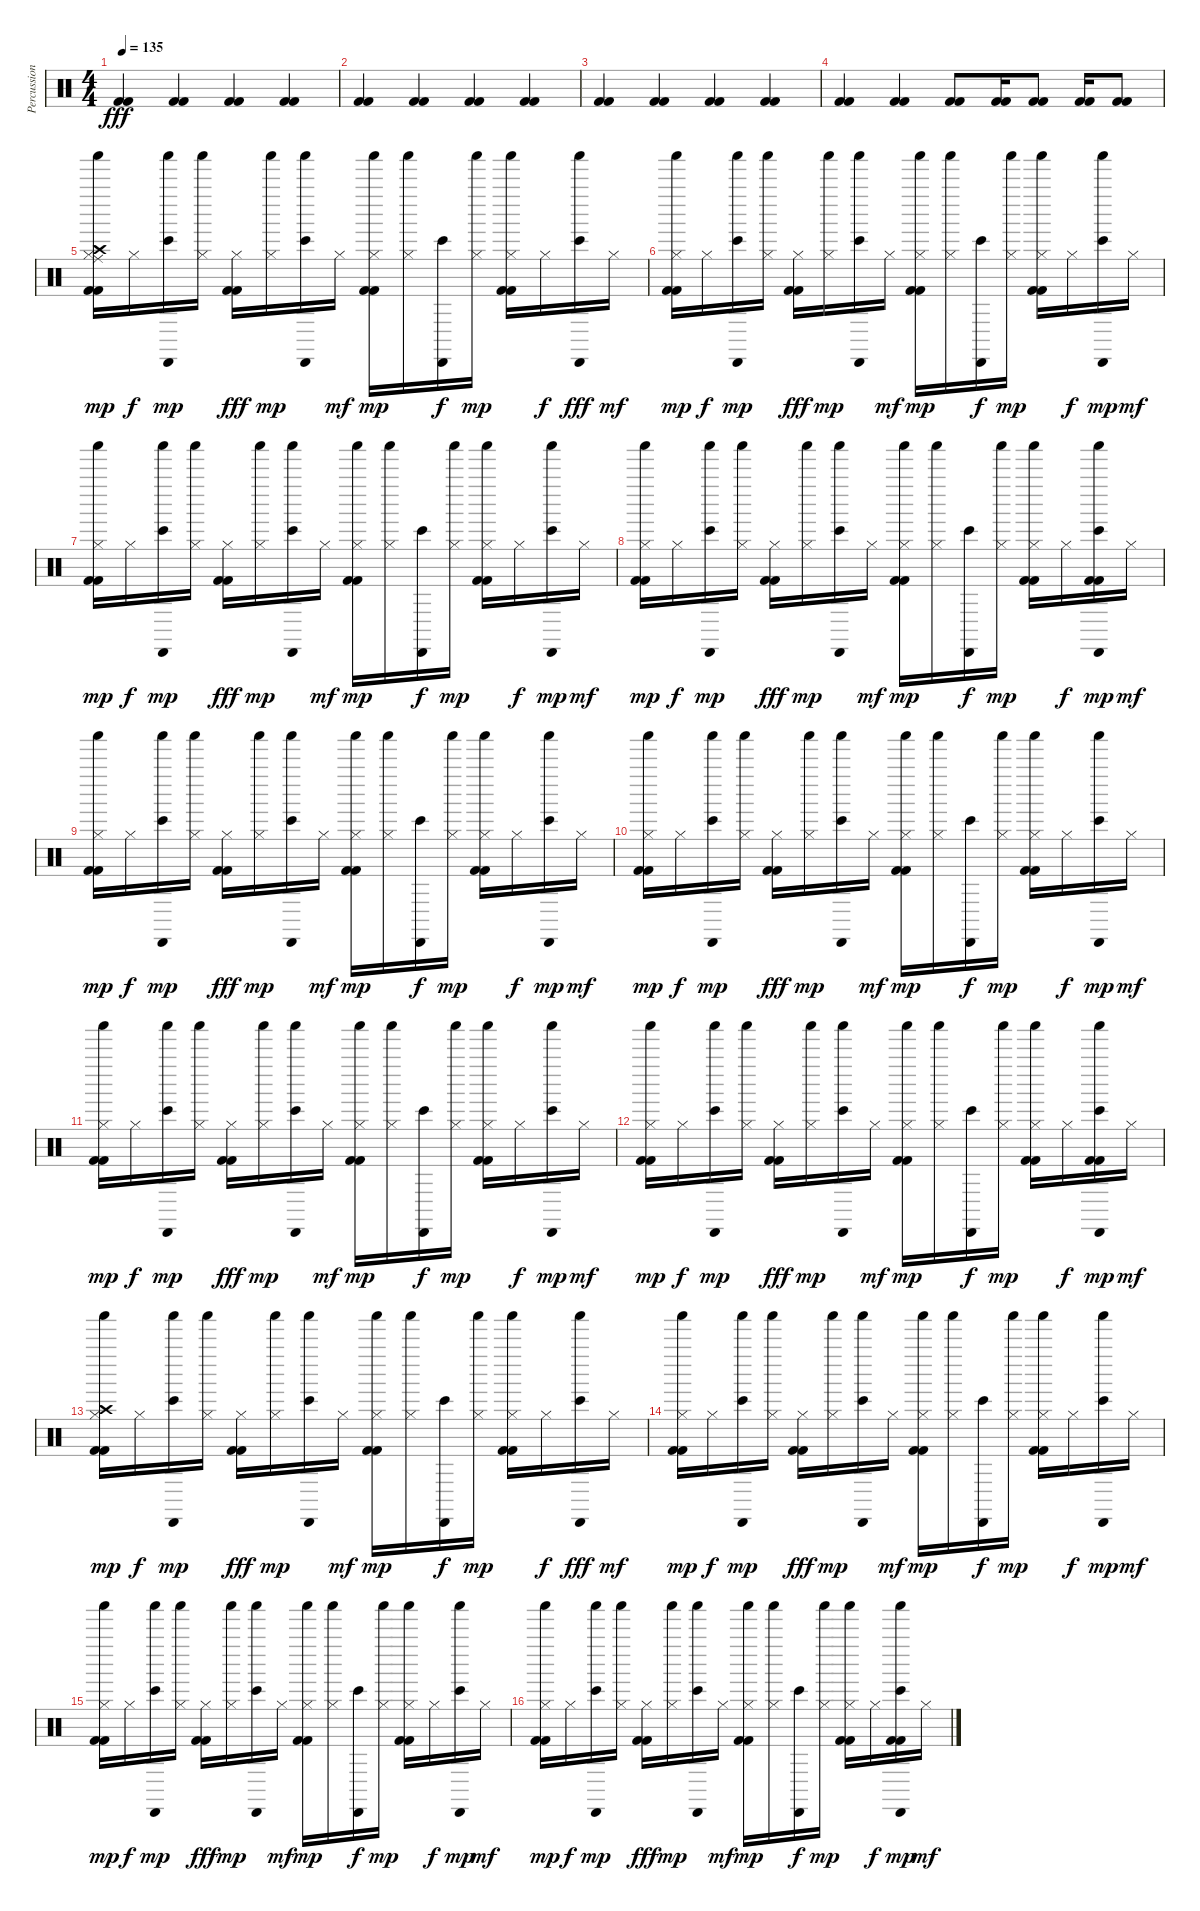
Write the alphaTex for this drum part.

\track ("Percussion" "Percussion") {instrument percussion}
\staff {score}
\articulation defaults
\ts (4 4)
\tempo 135
\clef neutral
\ks c
("Kick (hit) 2" "Kick (hit) 2").4{dy fff} ("Kick (hit) 2" "Kick (hit) 2").4 ("Kick (hit) 2" "Kick (hit) 2").4 ("Kick (hit) 2" "Kick (hit) 2").4 |
("Kick (hit) 2" "Kick (hit) 2").4 ("Kick (hit) 2" "Kick (hit) 2").4 ("Kick (hit) 2" "Kick (hit) 2").4 ("Kick (hit) 2" "Kick (hit) 2").4 |
("Kick (hit) 2" "Kick (hit) 2").4 ("Kick (hit) 2" "Kick (hit) 2").4 ("Kick (hit) 2" "Kick (hit) 2").4 ("Kick (hit) 2" "Kick (hit) 2").4 |
("Kick (hit) 2" "Kick (hit) 2").4 ("Kick (hit) 2" "Kick (hit) 2").4 ("Kick (hit) 2" "Kick (hit) 2").8 ("Kick (hit) 2" "Kick (hit) 2").16 ("Kick (hit) 2" "Kick (hit) 2").8 ("Kick (hit) 2" "Kick (hit) 2").16 ("Kick (hit) 2" "Kick (hit) 2").8 |
("Ride (middle)" "Hi-Hat (closed)" "Crash high (hit)" "Kick (hit) 2" "Kick (hit) 2" "Shaker (hit)").16{dy mp} "Hi-Hat (closed)".16{dy f} ("Cabasa (hit)" "Bongo High (hit)" "Shaker (hit)").16{dy mp} ("Hi-Hat (closed)" "Shaker (hit)").16 ("Hi-Hat (closed)" "Kick (hit) 2" "Kick (hit) 2").16{dy fff} ("Hi-Hat (closed)" "Shaker (hit)").16{dy mp} ("Cabasa (hit)" "Bongo High (hit)" "Shaker (hit)").16 "Hi-Hat (closed)".16{dy mf} ("Hi-Hat (closed)" "Kick (hit) 2" "Kick (hit) 2" "Shaker (hit)").16{dy mp} ("Hi-Hat (closed)" "Shaker (hit)").16 ("Cabasa (hit)" "Bongo High (hit)").16{dy f} ("Hi-Hat (closed)" "Shaker (hit)").16{dy mp} ("Hi-Hat (closed)" "Kick (hit) 2" "Kick (hit) 2" "Shaker (hit)").16 "Hi-Hat (closed)".16{dy f} ("Cabasa (hit)" "Bongo High (hit)" "Shaker (hit)").16{dy fff} "Hi-Hat (closed)".16{dy mf} |
("Hi-Hat (closed)" "Kick (hit) 2" "Kick (hit) 2" "Shaker (hit)").16{dy mp} "Hi-Hat (closed)".16{dy f} ("Cabasa (hit)" "Bongo High (hit)" "Shaker (hit)").16{dy mp} ("Hi-Hat (closed)" "Shaker (hit)").16 ("Hi-Hat (closed)" "Kick (hit) 2" "Kick (hit) 2").16{dy fff} ("Hi-Hat (closed)" "Shaker (hit)").16{dy mp} ("Cabasa (hit)" "Bongo High (hit)" "Shaker (hit)").16 "Hi-Hat (closed)".16{dy mf} ("Hi-Hat (closed)" "Kick (hit) 2" "Kick (hit) 2" "Shaker (hit)").16{dy mp} ("Hi-Hat (closed)" "Shaker (hit)").16 ("Cabasa (hit)" "Bongo High (hit)").16{dy f} ("Hi-Hat (closed)" "Shaker (hit)").16{dy mp} ("Hi-Hat (closed)" "Kick (hit) 2" "Kick (hit) 2" "Shaker (hit)").16 "Hi-Hat (closed)".16{dy f} ("Cabasa (hit)" "Bongo High (hit)" "Shaker (hit)").16{dy mp} "Hi-Hat (closed)".16{dy mf} |
("Hi-Hat (closed)" "Kick (hit) 2" "Kick (hit) 2" "Shaker (hit)").16{dy mp} "Hi-Hat (closed)".16{dy f} ("Cabasa (hit)" "Bongo High (hit)" "Shaker (hit)").16{dy mp} ("Hi-Hat (closed)" "Shaker (hit)").16 ("Hi-Hat (closed)" "Kick (hit) 2" "Kick (hit) 2").16{dy fff} ("Hi-Hat (closed)" "Shaker (hit)").16{dy mp} ("Cabasa (hit)" "Bongo High (hit)" "Shaker (hit)").16 "Hi-Hat (closed)".16{dy mf} ("Hi-Hat (closed)" "Kick (hit) 2" "Kick (hit) 2" "Shaker (hit)").16{dy mp} ("Hi-Hat (closed)" "Shaker (hit)").16 ("Cabasa (hit)" "Bongo High (hit)").16{dy f} ("Hi-Hat (closed)" "Shaker (hit)").16{dy mp} ("Hi-Hat (closed)" "Kick (hit) 2" "Kick (hit) 2" "Shaker (hit)").16 "Hi-Hat (closed)".16{dy f} ("Cabasa (hit)" "Bongo High (hit)" "Shaker (hit)").16{dy mp} "Hi-Hat (closed)".16{dy mf} |
("Hi-Hat (closed)" "Kick (hit) 2" "Kick (hit) 2" "Shaker (hit)").16{dy mp} "Hi-Hat (closed)".16{dy f} ("Cabasa (hit)" "Bongo High (hit)" "Shaker (hit)").16{dy mp} ("Hi-Hat (closed)" "Shaker (hit)").16 ("Hi-Hat (closed)" "Kick (hit) 2" "Kick (hit) 2").16{dy fff} ("Hi-Hat (closed)" "Shaker (hit)").16{dy mp} ("Cabasa (hit)" "Bongo High (hit)" "Shaker (hit)").16 "Hi-Hat (closed)".16{dy mf} ("Hi-Hat (closed)" "Kick (hit) 2" "Kick (hit) 2" "Shaker (hit)").16{dy mp} ("Hi-Hat (closed)" "Shaker (hit)").16 ("Cabasa (hit)" "Bongo High (hit)").16{dy f} ("Hi-Hat (closed)" "Shaker (hit)").16{dy mp} ("Hi-Hat (closed)" "Kick (hit) 2" "Kick (hit) 2" "Shaker (hit)").16 "Hi-Hat (closed)".16{dy f} ("Cabasa (hit)" "Bongo High (hit)" "Kick (hit) 2" "Kick (hit) 2" "Shaker (hit)").16{dy mp} "Hi-Hat (closed)".16{dy mf} |
("Hi-Hat (closed)" "Kick (hit) 2" "Kick (hit) 2" "Shaker (hit)").16{dy mp} "Hi-Hat (closed)".16{dy f} ("Cabasa (hit)" "Bongo High (hit)" "Shaker (hit)").16{dy mp} ("Hi-Hat (closed)" "Shaker (hit)").16 ("Hi-Hat (closed)" "Kick (hit) 2" "Kick (hit) 2").16{dy fff} ("Hi-Hat (closed)" "Shaker (hit)").16{dy mp} ("Cabasa (hit)" "Bongo High (hit)" "Shaker (hit)").16 "Hi-Hat (closed)".16{dy mf} ("Hi-Hat (closed)" "Kick (hit) 2" "Kick (hit) 2" "Shaker (hit)").16{dy mp} ("Hi-Hat (closed)" "Shaker (hit)").16 ("Cabasa (hit)" "Bongo High (hit)").16{dy f} ("Hi-Hat (closed)" "Shaker (hit)").16{dy mp} ("Hi-Hat (closed)" "Kick (hit) 2" "Kick (hit) 2" "Shaker (hit)").16 "Hi-Hat (closed)".16{dy f} ("Cabasa (hit)" "Bongo High (hit)" "Shaker (hit)").16{dy mp} "Hi-Hat (closed)".16{dy mf} |
("Hi-Hat (closed)" "Kick (hit) 2" "Kick (hit) 2" "Shaker (hit)").16{dy mp} "Hi-Hat (closed)".16{dy f} ("Cabasa (hit)" "Bongo High (hit)" "Shaker (hit)").16{dy mp} ("Hi-Hat (closed)" "Shaker (hit)").16 ("Hi-Hat (closed)" "Kick (hit) 2" "Kick (hit) 2").16{dy fff} ("Hi-Hat (closed)" "Shaker (hit)").16{dy mp} ("Cabasa (hit)" "Bongo High (hit)" "Shaker (hit)").16 "Hi-Hat (closed)".16{dy mf} ("Hi-Hat (closed)" "Kick (hit) 2" "Kick (hit) 2" "Shaker (hit)").16{dy mp} ("Hi-Hat (closed)" "Shaker (hit)").16 ("Cabasa (hit)" "Bongo High (hit)").16{dy f} ("Hi-Hat (closed)" "Shaker (hit)").16{dy mp} ("Hi-Hat (closed)" "Kick (hit) 2" "Kick (hit) 2" "Shaker (hit)").16 "Hi-Hat (closed)".16{dy f} ("Cabasa (hit)" "Bongo High (hit)" "Shaker (hit)").16{dy mp} "Hi-Hat (closed)".16{dy mf} |
("Hi-Hat (closed)" "Kick (hit) 2" "Kick (hit) 2" "Shaker (hit)").16{dy mp} "Hi-Hat (closed)".16{dy f} ("Cabasa (hit)" "Bongo High (hit)" "Shaker (hit)").16{dy mp} ("Hi-Hat (closed)" "Shaker (hit)").16 ("Hi-Hat (closed)" "Kick (hit) 2" "Kick (hit) 2").16{dy fff} ("Hi-Hat (closed)" "Shaker (hit)").16{dy mp} ("Cabasa (hit)" "Bongo High (hit)" "Shaker (hit)").16 "Hi-Hat (closed)".16{dy mf} ("Hi-Hat (closed)" "Kick (hit) 2" "Kick (hit) 2" "Shaker (hit)").16{dy mp} ("Hi-Hat (closed)" "Shaker (hit)").16 ("Cabasa (hit)" "Bongo High (hit)").16{dy f} ("Hi-Hat (closed)" "Shaker (hit)").16{dy mp} ("Hi-Hat (closed)" "Kick (hit) 2" "Kick (hit) 2" "Shaker (hit)").16 "Hi-Hat (closed)".16{dy f} ("Cabasa (hit)" "Bongo High (hit)" "Shaker (hit)").16{dy mp} "Hi-Hat (closed)".16{dy mf} |
("Hi-Hat (closed)" "Kick (hit) 2" "Kick (hit) 2" "Shaker (hit)").16{dy mp} "Hi-Hat (closed)".16{dy f} ("Cabasa (hit)" "Bongo High (hit)" "Shaker (hit)").16{dy mp} ("Hi-Hat (closed)" "Shaker (hit)").16 ("Hi-Hat (closed)" "Kick (hit) 2" "Kick (hit) 2").16{dy fff} ("Hi-Hat (closed)" "Shaker (hit)").16{dy mp} ("Cabasa (hit)" "Bongo High (hit)" "Shaker (hit)").16 "Hi-Hat (closed)".16{dy mf} ("Hi-Hat (closed)" "Kick (hit) 2" "Kick (hit) 2" "Shaker (hit)").16{dy mp} ("Hi-Hat (closed)" "Shaker (hit)").16 ("Cabasa (hit)" "Bongo High (hit)").16{dy f} ("Hi-Hat (closed)" "Shaker (hit)").16{dy mp} ("Hi-Hat (closed)" "Kick (hit) 2" "Kick (hit) 2" "Shaker (hit)").16 "Hi-Hat (closed)".16{dy f} ("Cabasa (hit)" "Bongo High (hit)" "Kick (hit) 2" "Kick (hit) 2" "Shaker (hit)").16{dy mp} "Hi-Hat (closed)".16{dy mf} |
("Crash high (hit)" "Hi-Hat (closed)" "Kick (hit) 2" "Kick (hit) 2" "Shaker (hit)").16{dy mp} "Hi-Hat (closed)".16{dy f} ("Cabasa (hit)" "Bongo High (hit)" "Shaker (hit)").16{dy mp} ("Hi-Hat (closed)" "Shaker (hit)").16 ("Hi-Hat (closed)" "Kick (hit) 2" "Kick (hit) 2").16{dy fff} ("Hi-Hat (closed)" "Shaker (hit)").16{dy mp} ("Cabasa (hit)" "Bongo High (hit)" "Shaker (hit)").16 "Hi-Hat (closed)".16{dy mf} ("Hi-Hat (closed)" "Kick (hit) 2" "Kick (hit) 2" "Shaker (hit)").16{dy mp} ("Hi-Hat (closed)" "Shaker (hit)").16 ("Cabasa (hit)" "Bongo High (hit)").16{dy f} ("Hi-Hat (closed)" "Shaker (hit)").16{dy mp} ("Hi-Hat (closed)" "Kick (hit) 2" "Kick (hit) 2" "Shaker (hit)").16 "Hi-Hat (closed)".16{dy f} ("Cabasa (hit)" "Bongo High (hit)" "Shaker (hit)").16{dy fff} "Hi-Hat (closed)".16{dy mf} |
("Hi-Hat (closed)" "Kick (hit) 2" "Kick (hit) 2" "Shaker (hit)").16{dy mp} "Hi-Hat (closed)".16{dy f} ("Cabasa (hit)" "Bongo High (hit)" "Shaker (hit)").16{dy mp} ("Hi-Hat (closed)" "Shaker (hit)").16 ("Hi-Hat (closed)" "Kick (hit) 2" "Kick (hit) 2").16{dy fff} ("Hi-Hat (closed)" "Shaker (hit)").16{dy mp} ("Cabasa (hit)" "Bongo High (hit)" "Shaker (hit)").16 "Hi-Hat (closed)".16{dy mf} ("Hi-Hat (closed)" "Kick (hit) 2" "Kick (hit) 2" "Shaker (hit)").16{dy mp} ("Hi-Hat (closed)" "Shaker (hit)").16 ("Cabasa (hit)" "Bongo High (hit)").16{dy f} ("Hi-Hat (closed)" "Shaker (hit)").16{dy mp} ("Hi-Hat (closed)" "Kick (hit) 2" "Kick (hit) 2" "Shaker (hit)").16 "Hi-Hat (closed)".16{dy f} ("Cabasa (hit)" "Bongo High (hit)" "Shaker (hit)").16{dy mp} "Hi-Hat (closed)".16{dy mf} |
("Hi-Hat (closed)" "Kick (hit) 2" "Kick (hit) 2" "Shaker (hit)").16{dy mp} "Hi-Hat (closed)".16{dy f} ("Cabasa (hit)" "Bongo High (hit)" "Shaker (hit)").16{dy mp} ("Hi-Hat (closed)" "Shaker (hit)").16 ("Hi-Hat (closed)" "Kick (hit) 2" "Kick (hit) 2").16{dy fff} ("Hi-Hat (closed)" "Shaker (hit)").16{dy mp} ("Cabasa (hit)" "Bongo High (hit)" "Shaker (hit)").16 "Hi-Hat (closed)".16{dy mf} ("Hi-Hat (closed)" "Kick (hit) 2" "Kick (hit) 2" "Shaker (hit)").16{dy mp} ("Hi-Hat (closed)" "Shaker (hit)").16 ("Cabasa (hit)" "Bongo High (hit)").16{dy f} ("Hi-Hat (closed)" "Shaker (hit)").16{dy mp} ("Hi-Hat (closed)" "Kick (hit) 2" "Kick (hit) 2" "Shaker (hit)").16 "Hi-Hat (closed)".16{dy f} ("Cabasa (hit)" "Bongo High (hit)" "Shaker (hit)").16{dy mp} "Hi-Hat (closed)".16{dy mf} |
("Hi-Hat (closed)" "Kick (hit) 2" "Kick (hit) 2" "Shaker (hit)").16{dy mp} "Hi-Hat (closed)".16{dy f} ("Cabasa (hit)" "Bongo High (hit)" "Shaker (hit)").16{dy mp} ("Hi-Hat (closed)" "Shaker (hit)").16 ("Hi-Hat (closed)" "Kick (hit) 2" "Kick (hit) 2").16{dy fff} ("Hi-Hat (closed)" "Shaker (hit)").16{dy mp} ("Cabasa (hit)" "Bongo High (hit)" "Shaker (hit)").16 "Hi-Hat (closed)".16{dy mf} ("Hi-Hat (closed)" "Kick (hit) 2" "Kick (hit) 2" "Shaker (hit)").16{dy mp} ("Hi-Hat (closed)" "Shaker (hit)").16 ("Cabasa (hit)" "Bongo High (hit)").16{dy f} ("Hi-Hat (closed)" "Shaker (hit)").16{dy mp} ("Hi-Hat (closed)" "Kick (hit) 2" "Kick (hit) 2" "Shaker (hit)").16 "Hi-Hat (closed)".16{dy f} ("Cabasa (hit)" "Bongo High (hit)" "Kick (hit) 2" "Kick (hit) 2" "Shaker (hit)").16{dy mp} "Hi-Hat (closed)".16{dy mf}
